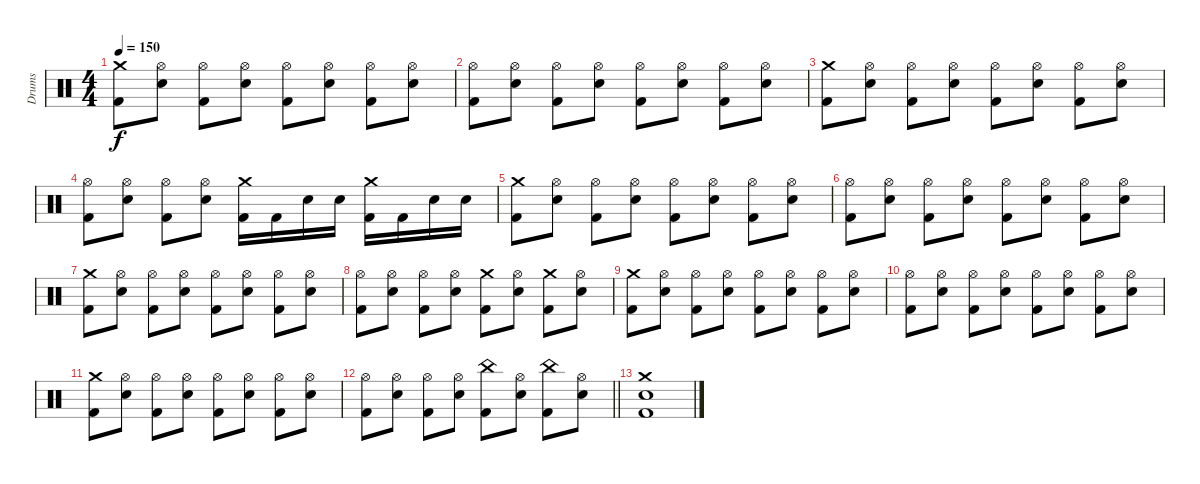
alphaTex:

\track ("Drums" "Drums") {instrument percussion}
\staff {score}
\articulation defaults
\ts (4 4)
\tempo 150
\clef neutral
\ks c
("Crash medium (hit)" "Kick (hit) 2").8{dy f} ("Hi-Hat (open)" "Electric Snare (hit)").8 ("Hi-Hat (open)" "Kick (hit) 2").8 ("Hi-Hat (open)" "Electric Snare (hit)").8 ("Hi-Hat (open)" "Kick (hit) 2").8 ("Hi-Hat (open)" "Electric Snare (hit)").8 ("Hi-Hat (open)" "Kick (hit) 2").8 ("Hi-Hat (open)" "Electric Snare (hit)").8 |
("Hi-Hat (open)" "Kick (hit) 2").8 ("Hi-Hat (open)" "Electric Snare (hit)").8 ("Hi-Hat (open)" "Kick (hit) 2").8 ("Hi-Hat (open)" "Electric Snare (hit)").8 ("Hi-Hat (open)" "Kick (hit) 2").8 ("Hi-Hat (open)" "Electric Snare (hit)").8 ("Hi-Hat (open)" "Kick (hit) 2").8 ("Hi-Hat (open)" "Electric Snare (hit)").8 |
("Crash medium (hit)" "Kick (hit) 2").8 ("Hi-Hat (open)" "Electric Snare (hit)").8 ("Hi-Hat (open)" "Kick (hit) 2").8 ("Hi-Hat (open)" "Electric Snare (hit)").8 ("Hi-Hat (open)" "Kick (hit) 2").8 ("Hi-Hat (open)" "Electric Snare (hit)").8 ("Hi-Hat (open)" "Kick (hit) 2").8 ("Hi-Hat (open)" "Electric Snare (hit)").8 |
("Hi-Hat (open)" "Kick (hit) 2").8 ("Hi-Hat (open)" "Electric Snare (hit)").8 ("Hi-Hat (open)" "Kick (hit) 2").8 ("Hi-Hat (open)" "Electric Snare (hit)").8 ("Crash medium (hit)" "Kick (hit) 2").16 "Kick (hit) 2".16 "Electric Snare (hit)".16 "Electric Snare (hit)".16 ("Crash medium (hit)" "Kick (hit) 2").16 "Kick (hit) 2".16 "Electric Snare (hit)".16 "Electric Snare (hit)".16 |
("Crash medium (hit)" "Kick (hit) 2").8 ("Hi-Hat (open)" "Electric Snare (hit)").8 ("Hi-Hat (open)" "Kick (hit) 2").8 ("Hi-Hat (open)" "Electric Snare (hit)").8 ("Hi-Hat (open)" "Kick (hit) 2").8 ("Hi-Hat (open)" "Electric Snare (hit)").8 ("Hi-Hat (open)" "Kick (hit) 2").8 ("Hi-Hat (open)" "Electric Snare (hit)").8 |
("Hi-Hat (open)" "Kick (hit) 2").8 ("Hi-Hat (open)" "Electric Snare (hit)").8 ("Hi-Hat (open)" "Kick (hit) 2").8 ("Hi-Hat (open)" "Electric Snare (hit)").8 ("Hi-Hat (open)" "Kick (hit) 2").8 ("Hi-Hat (open)" "Electric Snare (hit)").8 ("Hi-Hat (open)" "Kick (hit) 2").8 ("Hi-Hat (open)" "Electric Snare (hit)").8 |
("Crash medium (hit)" "Kick (hit) 2").8 ("Hi-Hat (open)" "Electric Snare (hit)").8 ("Hi-Hat (open)" "Kick (hit) 2").8 ("Hi-Hat (open)" "Electric Snare (hit)").8 ("Hi-Hat (open)" "Kick (hit) 2").8 ("Hi-Hat (open)" "Electric Snare (hit)").8 ("Hi-Hat (open)" "Kick (hit) 2").8 ("Hi-Hat (open)" "Electric Snare (hit)").8 |
("Hi-Hat (open)" "Kick (hit) 2").8 ("Hi-Hat (open)" "Electric Snare (hit)").8 ("Hi-Hat (open)" "Kick (hit) 2").8 ("Hi-Hat (open)" "Electric Snare (hit)").8 ("Crash medium (hit)" "Kick (hit) 2").8 ("Hi-Hat (open)" "Electric Snare (hit)").8 ("Crash medium (hit)" "Kick (hit) 2").8 ("Hi-Hat (open)" "Electric Snare (hit)").8 |
("Crash medium (hit)" "Kick (hit) 2").8 ("Hi-Hat (open)" "Electric Snare (hit)").8 ("Hi-Hat (open)" "Kick (hit) 2").8 ("Hi-Hat (open)" "Electric Snare (hit)").8 ("Hi-Hat (open)" "Kick (hit) 2").8 ("Hi-Hat (open)" "Electric Snare (hit)").8 ("Hi-Hat (open)" "Kick (hit) 2").8 ("Hi-Hat (open)" "Electric Snare (hit)").8 |
("Hi-Hat (open)" "Kick (hit) 2").8 ("Hi-Hat (open)" "Electric Snare (hit)").8 ("Hi-Hat (open)" "Kick (hit) 2").8 ("Hi-Hat (open)" "Electric Snare (hit)").8 ("Hi-Hat (open)" "Kick (hit) 2").8 ("Hi-Hat (open)" "Electric Snare (hit)").8 ("Hi-Hat (open)" "Kick (hit) 2").8 ("Hi-Hat (open)" "Electric Snare (hit)").8 |
("Crash medium (hit)" "Kick (hit) 2").8 ("Hi-Hat (open)" "Electric Snare (hit)").8 ("Hi-Hat (open)" "Kick (hit) 2").8 ("Hi-Hat (open)" "Electric Snare (hit)").8 ("Hi-Hat (open)" "Kick (hit) 2").8 ("Hi-Hat (open)" "Electric Snare (hit)").8 ("Hi-Hat (open)" "Kick (hit) 2").8 ("Hi-Hat (open)" "Electric Snare (hit)").8 |
\barLineRight lightlight
("Hi-Hat (open)" "Kick (hit) 2").8 ("Hi-Hat (open)" "Electric Snare (hit)").8 ("Hi-Hat (open)" "Kick (hit) 2").8 ("Hi-Hat (open)" "Electric Snare (hit)").8 ("China (hit)" "Kick (hit) 2").8 ("Hi-Hat (open)" "Electric Snare (hit)").8 ("China (hit)" "Kick (hit) 2").8 ("Hi-Hat (open)" "Electric Snare (hit)").8 |
("Crash medium (hit)" "Electric Snare (hit)" "Kick (hit) 2").1
